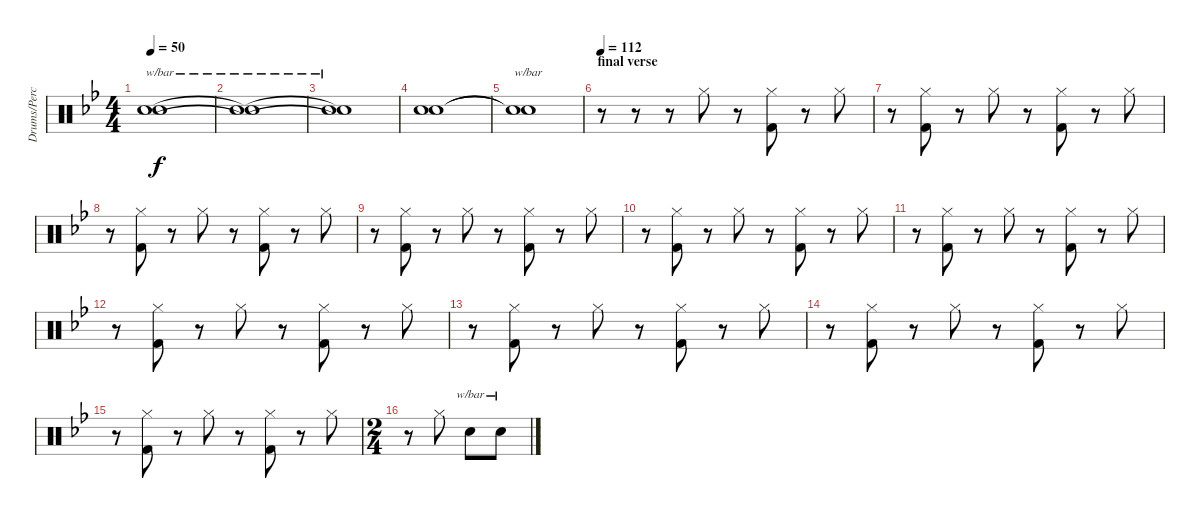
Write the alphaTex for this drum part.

\track ("Drums/Percussion (Bengerg)" "Drums/Perc") {instrument percussion}
\staff {score}
\articulation defaults
\ts (4 4)
\tempo 50
\clef neutral
\ks bb
("Snare (hit)"{t} "Snare (hit)"{t}).1{tbe (hold default 0 24 60 24) dy f} |
("Snare (hit)"{t} "Snare (hit)"{t}).1{tbe (hold default 0 24 60 24)} |
("Snare (hit)"{t} "Snare (hit)"{t}).1{tbe (custom default 0 24 45 24 60 0)} |
("Snare (hit)"{t} "Snare (hit)"{t}).1 |
("Snare (hit)"{t} "Snare (hit)"{t}).1{tbe (custom default 0 24 45 24 60 0)} |
\section ("" "final verse")
\tempo 112
r.8 r.8 r.8 "Hi-Hat (closed)".8 r.8 ("Hi-Hat (closed)" "Kick (hit) 2").8 r.8 "Hi-Hat (closed)".8 |
r.8 ("Hi-Hat (closed)" "Kick (hit) 2").8 r.8 "Hi-Hat (closed)".8 r.8 ("Hi-Hat (closed)" "Kick (hit) 2").8 r.8 "Hi-Hat (closed)".8 |
r.8 ("Hi-Hat (closed)" "Kick (hit) 2").8 r.8 "Hi-Hat (closed)".8 r.8 ("Hi-Hat (closed)" "Kick (hit) 2").8 r.8 "Hi-Hat (closed)".8 |
r.8 ("Hi-Hat (closed)" "Kick (hit) 2").8 r.8 "Hi-Hat (closed)".8 r.8 ("Hi-Hat (closed)" "Kick (hit) 2").8 r.8 "Hi-Hat (closed)".8 |
r.8 ("Hi-Hat (closed)" "Kick (hit) 2").8 r.8 "Hi-Hat (closed)".8 r.8 ("Hi-Hat (closed)" "Kick (hit) 2").8 r.8 "Hi-Hat (closed)".8 |
r.8 ("Hi-Hat (closed)" "Kick (hit) 2").8 r.8 "Hi-Hat (closed)".8 r.8 ("Hi-Hat (closed)" "Kick (hit) 2").8 r.8 "Hi-Hat (closed)".8 |
r.8 ("Hi-Hat (closed)" "Kick (hit) 2").8 r.8 "Hi-Hat (closed)".8 r.8 ("Hi-Hat (closed)" "Kick (hit) 2").8 r.8 "Hi-Hat (closed)".8 |
r.8 ("Hi-Hat (closed)" "Kick (hit) 2").8 r.8 "Hi-Hat (closed)".8 r.8 ("Hi-Hat (closed)" "Kick (hit) 2").8 r.8 "Hi-Hat (closed)".8 |
r.8 ("Hi-Hat (closed)" "Kick (hit) 2").8 r.8 "Hi-Hat (closed)".8 r.8 ("Hi-Hat (closed)" "Kick (hit) 2").8 r.8 "Hi-Hat (closed)".8 |
r.8 ("Hi-Hat (closed)" "Kick (hit) 2").8 r.8 "Hi-Hat (closed)".8 r.8 ("Hi-Hat (closed)" "Kick (hit) 2").8 r.8 "Hi-Hat (closed)".8 |
\ts (2 4)
r.8 "Hi-Hat (closed)".8 "Electric Snare (hit)".8{tbe (custom default 0 12 45 12 60 0) balance 16} "Electric Snare (hit)".8{tbe (custom default 0 12 45 12 60 0) balance 0}
